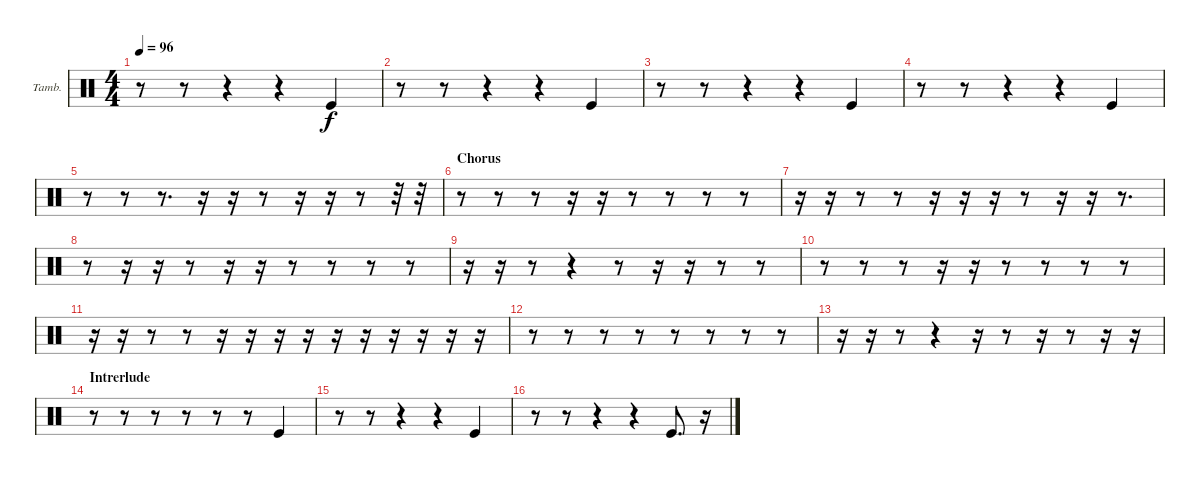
\defaultSystemsLayout 4
\bracketExtendMode nobrackets
\firstSystemTrackNameOrientation horizontal
\otherSystemsTrackNameOrientation horizontal
\track ("Tambourine" "Tamb.") {instrument percussion}
\staff {score}
\articulation defaults
\ts (4 4)
\tempo 96
\clef neutral
\ks c
r.8{dy f} r.8 r.4 r.4 "Kick (hit)".4 |
r.8 r.8 r.4 r.4 "Kick (hit)".4 |
r.8 r.8 r.4 r.4 "Kick (hit)".4 |
r.8 r.8 r.4 r.4 "Kick (hit)".4 |
r.8 r.8 r.8{d} r.16 r.16 r.8 r.16 r.16 r.8 r.32 r.32 |
\section ("" "Chorus")
r.8 r.8 r.8 r.16 r.16 r.8 r.8 r.8 r.8 |
r.16 r.16 r.8 r.8 r.16 r.16 r.16 r.8 r.16 r.16 r.8{d} |
r.8 r.16 r.16 r.8 r.16 r.16 r.8 r.8 r.8 r.8 |
r.16 r.16 r.8 r.4 r.8 r.16 r.16 r.8 r.8 |
r.8 r.8 r.8 r.16 r.16 r.8 r.8 r.8 r.8 |
r.16 r.16 r.8 r.8 r.16 r.16 r.16 r.16 r.16 r.16 r.16 r.16 r.16 r.16 |
r.8 r.8 r.8 r.8 r.8 r.8 r.8 r.8 |
r.16 r.16 r.8 r.4 r.16 r.8 r.16 r.8 r.16 r.16 |
\section ("" "Intrerlude")
r.8 r.8 r.8 r.8 r.8 r.8 "Kick (hit)".4 |
r.8 r.8 r.4 r.4 "Kick (hit)".4 |
r.8 r.8 r.4 r.4 "Kick (hit)".8{d} r.16
